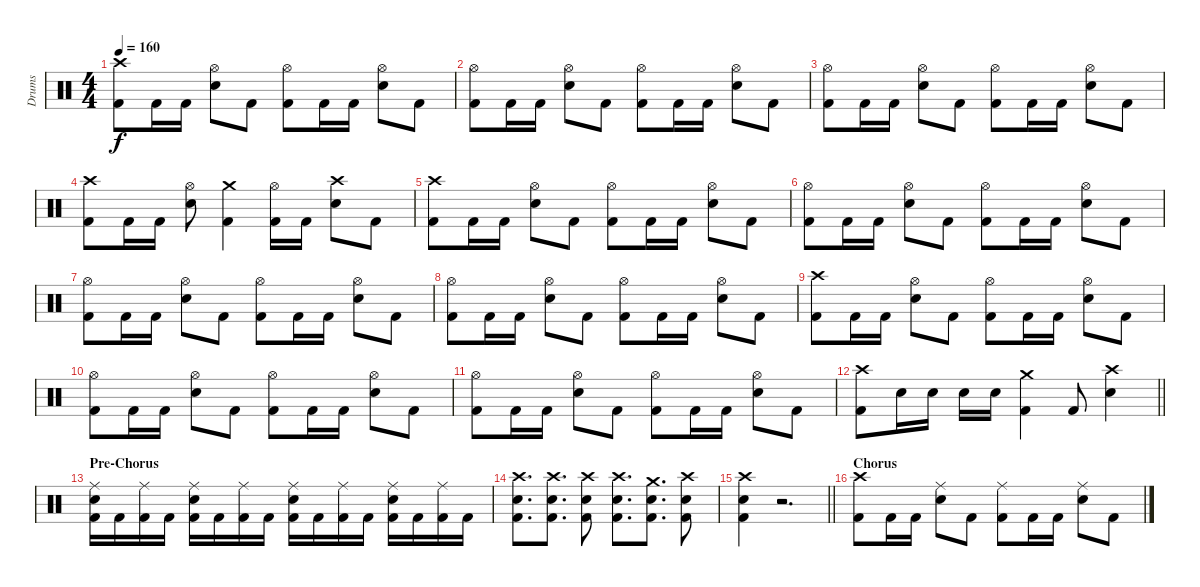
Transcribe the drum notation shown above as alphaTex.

\track ("Drums" "Drums") {instrument percussion}
\staff {score}
\articulation defaults
\ts (4 4)
\tempo 160
\clef neutral
\ks c
("Crash high (hit)" "Kick (hit) 2").8{dy f} "Kick (hit) 2".16 "Kick (hit) 2".16 ("Hi-Hat (open)" "Snare (hit) 2").8 "Kick (hit) 2".8 ("Hi-Hat (open)" "Kick (hit) 2").8 "Kick (hit) 2".16 "Kick (hit) 2".16 ("Hi-Hat (open)" "Snare (hit) 2").8 "Kick (hit) 2".8 |
("Hi-Hat (open)" "Kick (hit) 2").8 "Kick (hit) 2".16 "Kick (hit) 2".16 ("Hi-Hat (open)" "Snare (hit) 2").8 "Kick (hit) 2".8 ("Hi-Hat (open)" "Kick (hit) 2").8 "Kick (hit) 2".16 "Kick (hit) 2".16 ("Hi-Hat (open)" "Snare (hit) 2").8 "Kick (hit) 2".8 |
("Hi-Hat (open)" "Kick (hit) 2").8 "Kick (hit) 2".16 "Kick (hit) 2".16 ("Hi-Hat (open)" "Snare (hit) 2").8 "Kick (hit) 2".8 ("Hi-Hat (open)" "Kick (hit) 2").8 "Kick (hit) 2".16 "Kick (hit) 2".16 ("Hi-Hat (open)" "Snare (hit) 2").8 "Kick (hit) 2".8 |
("Crash high (hit)" "Kick (hit) 2").8 "Kick (hit) 2".16 "Kick (hit) 2".16 ("Hi-Hat (open)" "Snare (hit) 2").8 ("Crash medium (hit)" "Kick (hit) 2").4 ("Hi-Hat (open)" "Kick (hit) 2").16 "Kick (hit) 2".16 ("Crash high (hit)" "Snare (hit) 2").8 "Kick (hit) 2".8 |
("Crash high (hit)" "Kick (hit) 2").8 "Kick (hit) 2".16 "Kick (hit) 2".16 ("Hi-Hat (open)" "Snare (hit) 2").8 "Kick (hit) 2".8 ("Hi-Hat (open)" "Kick (hit) 2").8 "Kick (hit) 2".16 "Kick (hit) 2".16 ("Hi-Hat (open)" "Snare (hit) 2").8 "Kick (hit) 2".8 |
("Hi-Hat (open)" "Kick (hit) 2").8 "Kick (hit) 2".16 "Kick (hit) 2".16 ("Hi-Hat (open)" "Snare (hit) 2").8 "Kick (hit) 2".8 ("Hi-Hat (open)" "Kick (hit) 2").8 "Kick (hit) 2".16 "Kick (hit) 2".16 ("Hi-Hat (open)" "Snare (hit) 2").8 "Kick (hit) 2".8 |
("Hi-Hat (open)" "Kick (hit) 2").8 "Kick (hit) 2".16 "Kick (hit) 2".16 ("Hi-Hat (open)" "Snare (hit) 2").8 "Kick (hit) 2".8 ("Hi-Hat (open)" "Kick (hit) 2").8 "Kick (hit) 2".16 "Kick (hit) 2".16 ("Hi-Hat (open)" "Snare (hit) 2").8 "Kick (hit) 2".8 |
("Hi-Hat (open)" "Kick (hit) 2").8 "Kick (hit) 2".16 "Kick (hit) 2".16 ("Hi-Hat (open)" "Snare (hit) 2").8 "Kick (hit) 2".8 ("Hi-Hat (open)" "Kick (hit) 2").8 "Kick (hit) 2".16 "Kick (hit) 2".16 ("Hi-Hat (open)" "Snare (hit) 2").8 "Kick (hit) 2".8 |
("Crash high (hit)" "Kick (hit) 2").8 "Kick (hit) 2".16 "Kick (hit) 2".16 ("Hi-Hat (open)" "Snare (hit) 2").8 "Kick (hit) 2".8 ("Hi-Hat (open)" "Kick (hit) 2").8 "Kick (hit) 2".16 "Kick (hit) 2".16 ("Hi-Hat (open)" "Snare (hit) 2").8 "Kick (hit) 2".8 |
("Hi-Hat (open)" "Kick (hit) 2").8 "Kick (hit) 2".16 "Kick (hit) 2".16 ("Hi-Hat (open)" "Snare (hit) 2").8 "Kick (hit) 2".8 ("Hi-Hat (open)" "Kick (hit) 2").8 "Kick (hit) 2".16 "Kick (hit) 2".16 ("Hi-Hat (open)" "Snare (hit) 2").8 "Kick (hit) 2".8 |
("Hi-Hat (open)" "Kick (hit) 2").8 "Kick (hit) 2".16 "Kick (hit) 2".16 ("Hi-Hat (open)" "Snare (hit) 2").8 "Kick (hit) 2".8 ("Hi-Hat (open)" "Kick (hit) 2").8 "Kick (hit) 2".16 "Kick (hit) 2".16 ("Hi-Hat (open)" "Snare (hit) 2").8 "Kick (hit) 2".8 |
\barLineRight lightlight
("Crash high (hit)" "Kick (hit) 2").8 "Snare (hit) 2".16 "Snare (hit) 2".16 "Electric Snare (hit)".16 "Electric Snare (hit)".16 ("Crash medium (hit)" "Kick (hit) 2").4 "Kick (hit) 2".8 ("Crash high (hit)" "Snare (hit) 2").4 |
\section ("" "Pre-Chorus")
("Ride (middle)" "Snare (hit) 2" "Kick (hit) 2").16 "Kick (hit) 2".16 ("Ride (middle)" "Kick (hit) 2").16 "Kick (hit) 2".16 ("Ride (middle)" "Snare (hit) 2" "Kick (hit) 2").16 "Kick (hit) 2".16 ("Ride (middle)" "Kick (hit) 2").16 "Kick (hit) 2".16 ("Ride (middle)" "Snare (hit) 2" "Kick (hit) 2").16 "Kick (hit) 2".16 ("Ride (middle)" "Kick (hit) 2").16 "Kick (hit) 2".16 ("Ride (middle)" "Snare (hit) 2" "Kick (hit) 2").16 "Kick (hit) 2".16 ("Ride (middle)" "Kick (hit) 2").16 "Kick (hit) 2".16 |
("Crash high (hit)" "Snare (hit) 2" "Kick (hit) 2").8{d} ("Crash high (hit)" "Snare (hit) 2" "Kick (hit) 2").8{d} ("Crash high (hit)" "Snare (hit) 2" "Kick (hit) 2").8 ("Crash high (hit)" "Snare (hit) 2" "Kick (hit) 2").8{d} ("Crash medium (hit)" "Snare (hit) 2" "Kick (hit) 2").8{d} ("Crash high (hit)" "Snare (hit) 2" "Kick (hit) 2").8 |
\barLineRight lightlight
("Crash high (hit)" "Snare (hit) 2" "Kick (hit) 2").4 r.2{d} |
\section ("" "Chorus")
("Crash high (hit)" "Kick (hit) 2").8 "Kick (hit) 2".16 "Kick (hit) 2".16 ("Ride (middle)" "Snare (hit) 2").8 "Kick (hit) 2".8 ("Ride (middle)" "Kick (hit) 2").8 "Kick (hit) 2".16 "Kick (hit) 2".16 ("Ride (middle)" "Snare (hit) 2").8 "Kick (hit) 2".8
